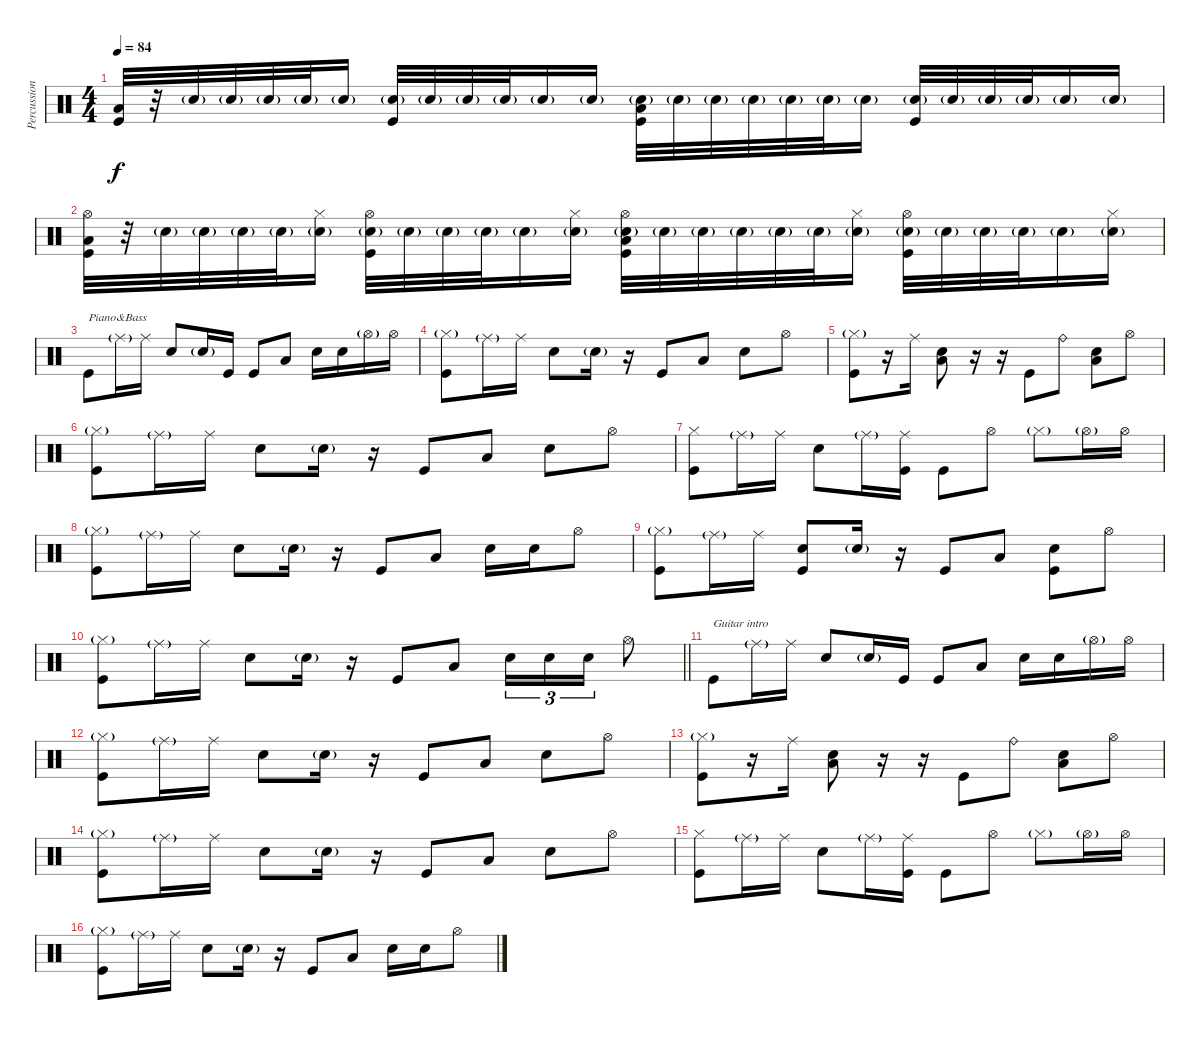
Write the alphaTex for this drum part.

\track ("Percussion" "Percussion") {instrument percussion}
\staff {score}
\articulation defaults
\ts (4 4)
\tempo 84
\clef neutral
\ks c
("Low Floor Tom (hit)" "Kick (hit)").32{dy f} r.32 "Snare (hit) 2"{g}.32 "Snare (hit) 2"{g}.32 "Snare (hit) 2"{g}.32 "Snare (hit) 2"{g}.32 "Snare (hit) 2"{g}.16 ("Snare (hit) 2"{g} "Kick (hit)").32 "Snare (hit) 2"{g}.32 "Snare (hit) 2"{g}.32 "Snare (hit) 2"{g}.32 "Snare (hit) 2"{g}.16 "Snare (hit) 2"{g}.16 ("Low Floor Tom (hit)" "Snare (hit) 2"{g} "Kick (hit)").32 "Snare (hit) 2"{g}.32 "Snare (hit) 2"{g}.32 "Snare (hit) 2"{g}.32 "Snare (hit) 2"{g}.32 "Snare (hit) 2"{g}.32 "Snare (hit) 2"{g}.16 ("Snare (hit) 2"{g} "Kick (hit)").32 "Snare (hit) 2"{g}.32 "Snare (hit) 2"{g}.32 "Snare (hit) 2"{g}.32 "Snare (hit) 2"{g}.16 "Snare (hit) 2"{g}.16 |
("Hi-Hat (open)" "Low Floor Tom (hit)" "Kick (hit)").32 r.32 "Snare (hit) 2"{g}.32 "Snare (hit) 2"{g}.32 "Snare (hit) 2"{g}.32 "Snare (hit) 2"{g}.32 ("Hi-Hat (closed)" "Snare (hit) 2"{g}).16 ("Hi-Hat (open)" "Snare (hit) 2"{g} "Kick (hit)").32 "Snare (hit) 2"{g}.32 "Snare (hit) 2"{g}.32 "Snare (hit) 2"{g}.32 "Snare (hit) 2"{g}.16 ("Hi-Hat (closed)" "Snare (hit) 2"{g}).16 ("Hi-Hat (open)" "Low Floor Tom (hit)" "Snare (hit) 2"{g} "Kick (hit)").32 "Snare (hit) 2"{g}.32 "Snare (hit) 2"{g}.32 "Snare (hit) 2"{g}.32 "Snare (hit) 2"{g}.32 "Snare (hit) 2"{g}.32 ("Hi-Hat (closed)" "Snare (hit) 2"{g}).16 ("Hi-Hat (open)" "Snare (hit) 2"{g} "Kick (hit)").32 "Snare (hit) 2"{g}.32 "Snare (hit) 2"{g}.32 "Snare (hit) 2"{g}.32 "Snare (hit) 2"{g}.16 ("Hi-Hat (closed)" "Snare (hit) 2"{g}).16 |
"Kick (hit)".8{txt "Piano&Bass"} "Ride (middle)"{g}.16 "Ride (middle)".16 "Snare (hit) 2".8 "Snare (hit) 2"{g}.16 "Kick (hit)".16 "Kick (hit)".8 "Low Floor Tom (hit)".8 "Snare (hit) 2".16 "Snare (hit) 2".16 "Hi-Hat (open)"{g}.16 "Hi-Hat (open)".16 |
("Hi-Hat (closed)"{g} "Kick (hit)").8 "Ride (middle)"{g}.16 "Ride (middle)".16 "Snare (hit) 2".8 "Snare (hit) 2"{g}.16 r.16 "Kick (hit)".8 "Low Floor Tom (hit)".8 "Snare (hit) 2".8 "Hi-Hat (open)".8 |
("Hi-Hat (closed)"{g} "Kick (hit)").8 r.16 "Ride (middle)".16 ("Snare (hit) 2" "Low Floor Tom (hit)").8 r.16 r.16 "Kick (hit)".8 "Ride (bell)".8 ("Snare (hit) 2" "Low Floor Tom (hit)").8 "Hi-Hat (open)".8 |
("Hi-Hat (closed)"{g} "Kick (hit)").8 "Ride (middle)"{g}.16 "Ride (middle)".16 "Snare (hit) 2".8 "Snare (hit) 2"{g}.16 r.16 "Kick (hit)".8 "Low Floor Tom (hit)".8 "Snare (hit) 2".8 "Hi-Hat (open)".8 |
("Hi-Hat (closed)" "Kick (hit)").8 "Ride (middle)"{g}.16 "Ride (middle)".16 "Snare (hit) 2".8 "Ride (middle)"{g}.16 ("Ride (middle)" "Kick (hit)").16 "Kick (hit)".8 "Hi-Hat (open)".8 "Hi-Hat (closed)"{g}.8 "Hi-Hat (open)"{g}.16 "Hi-Hat (open)".16 |
("Hi-Hat (closed)"{g} "Kick (hit)").8 "Ride (middle)"{g}.16 "Ride (middle)".16 "Snare (hit) 2".8 "Snare (hit) 2"{g}.16 r.16 "Kick (hit)".8 "Low Floor Tom (hit)".8 "Snare (hit) 2".16 "Snare (hit) 2".16 "Hi-Hat (open)".8 |
("Hi-Hat (closed)"{g} "Kick (hit)").8 "Ride (middle)"{g}.16 "Ride (middle)".16 ("Snare (hit) 2" "Kick (hit)").8 "Snare (hit) 2"{g}.16 r.16 "Kick (hit)".8 "Low Floor Tom (hit)".8 ("Snare (hit) 2" "Kick (hit)").8 "Hi-Hat (open)".8 |
\barLineRight lightlight
("Hi-Hat (closed)"{g} "Kick (hit)").8 "Ride (middle)"{g}.16 "Ride (middle)".16 "Snare (hit) 2".8 "Snare (hit) 2"{g}.16 r.16 "Kick (hit)".8 "Low Floor Tom (hit)".8 "Snare (hit) 2".16{tu (3 2)} "Snare (hit) 2".16{tu (3 2)} "Snare (hit) 2".16{tu (3 2)} "Hi-Hat (open)".8 |
"Kick (hit)".8{txt "Guitar intro"} "Ride (middle)"{g}.16 "Ride (middle)".16 "Snare (hit) 2".8 "Snare (hit) 2"{g}.16 "Kick (hit)".16 "Kick (hit)".8 "Low Floor Tom (hit)".8 "Snare (hit) 2".16 "Snare (hit) 2".16 "Hi-Hat (open)"{g}.16 "Hi-Hat (open)".16 |
("Hi-Hat (closed)"{g} "Kick (hit)").8 "Ride (middle)"{g}.16 "Ride (middle)".16 "Snare (hit) 2".8 "Snare (hit) 2"{g}.16 r.16 "Kick (hit)".8 "Low Floor Tom (hit)".8 "Snare (hit) 2".8 "Hi-Hat (open)".8 |
("Hi-Hat (closed)"{g} "Kick (hit)").8 r.16 "Ride (middle)".16 ("Snare (hit) 2" "Low Floor Tom (hit)").8 r.16 r.16 "Kick (hit)".8 "Ride (bell)".8 ("Snare (hit) 2" "Low Floor Tom (hit)").8 "Hi-Hat (open)".8 |
("Hi-Hat (closed)"{g} "Kick (hit)").8 "Ride (middle)"{g}.16 "Ride (middle)".16 "Snare (hit) 2".8 "Snare (hit) 2"{g}.16 r.16 "Kick (hit)".8 "Low Floor Tom (hit)".8 "Snare (hit) 2".8 "Hi-Hat (open)".8 |
("Hi-Hat (closed)" "Kick (hit)").8 "Ride (middle)"{g}.16 "Ride (middle)".16 "Snare (hit) 2".8 "Ride (middle)"{g}.16 ("Ride (middle)" "Kick (hit)").16 "Kick (hit)".8 "Hi-Hat (open)".8 "Hi-Hat (closed)"{g}.8 "Hi-Hat (open)"{g}.16 "Hi-Hat (open)".16 |
("Hi-Hat (closed)"{g} "Kick (hit)").8 "Ride (middle)"{g}.16 "Ride (middle)".16 "Snare (hit) 2".8 "Snare (hit) 2"{g}.16 r.16 "Kick (hit)".8 "Low Floor Tom (hit)".8 "Snare (hit) 2".16 "Snare (hit) 2".16 "Hi-Hat (open)".8
